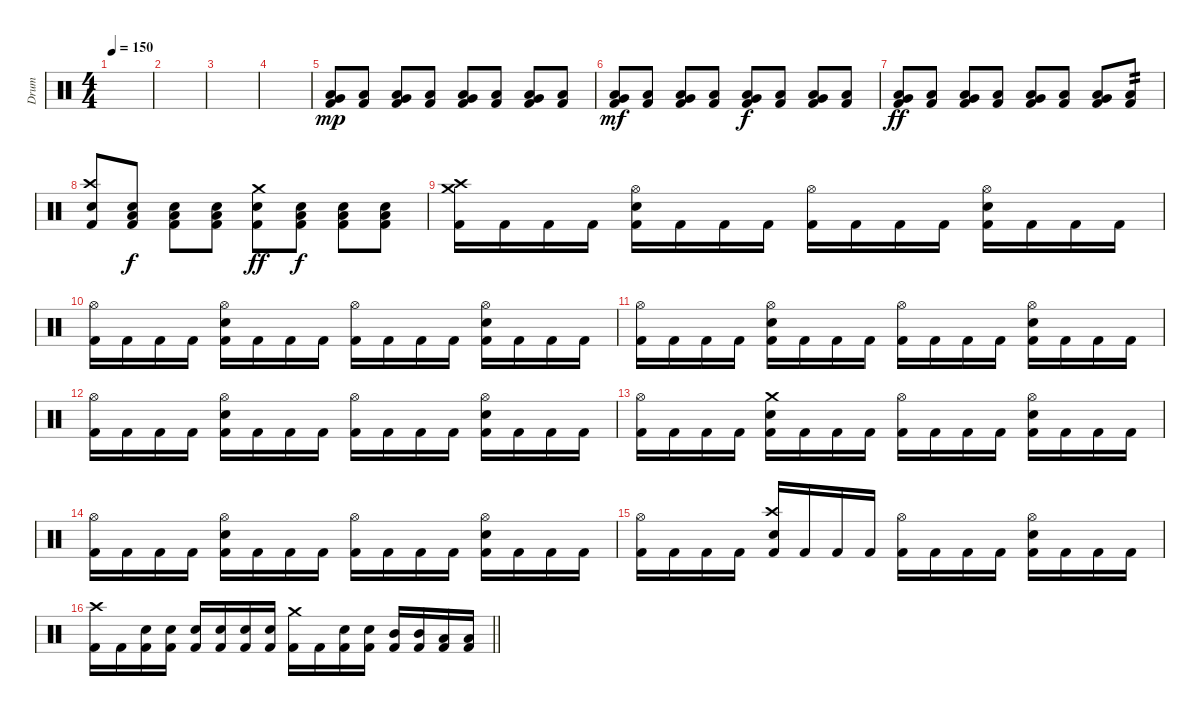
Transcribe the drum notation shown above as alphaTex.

\track ("Drum" "Drum") {instrument percussion}
\staff {score}
\articulation defaults
\ts (4 4)
\tempo 150
\clef neutral
\ks c
|
|
|
|
("Low Floor Tom (hit)" "Very Low Tom (hit)" "Kick (hit) 2").8{dy mp} ("Low Floor Tom (hit)" "Kick (hit) 2").8 ("Low Floor Tom (hit)" "Very Low Tom (hit)" "Kick (hit) 2").8 ("Low Floor Tom (hit)" "Kick (hit) 2").8 ("Low Floor Tom (hit)" "Very Low Tom (hit)" "Kick (hit) 2").8 ("Low Floor Tom (hit)" "Kick (hit) 2").8 ("Low Floor Tom (hit)" "Very Low Tom (hit)" "Kick (hit) 2").8 ("Low Floor Tom (hit)" "Kick (hit) 2").8 |
("Low Floor Tom (hit)" "Very Low Tom (hit)" "Kick (hit) 2").8{dy mf} ("Low Floor Tom (hit)" "Kick (hit) 2").8 ("Low Floor Tom (hit)" "Very Low Tom (hit)" "Kick (hit) 2").8 ("Low Floor Tom (hit)" "Kick (hit) 2").8 ("Low Floor Tom (hit)" "Very Low Tom (hit)" "Kick (hit) 2").8{dy f} ("Low Floor Tom (hit)" "Kick (hit) 2").8 ("Low Floor Tom (hit)" "Very Low Tom (hit)" "Kick (hit) 2").8 ("Low Floor Tom (hit)" "Kick (hit) 2").8 |
("Low Floor Tom (hit)" "Very Low Tom (hit)" "Kick (hit) 2").8{dy ff} ("Low Floor Tom (hit)" "Kick (hit) 2").8 ("Low Floor Tom (hit)" "Very Low Tom (hit)" "Kick (hit) 2").8 ("Low Floor Tom (hit)" "Kick (hit) 2").8 ("Low Floor Tom (hit)" "Very Low Tom (hit)" "Kick (hit) 2").8 ("Low Floor Tom (hit)" "Kick (hit) 2").8 ("Low Floor Tom (hit)" "Very Low Tom (hit)" "Kick (hit) 2").8 ("Low Floor Tom (hit)" "Kick (hit) 2").8{tp 2} |
("Crash high (hit)" "Snare (hit) 2" "Kick (hit) 2").8 ("Snare (hit) 2" "Low Floor Tom (hit)" "Kick (hit) 2").8{dy f} ("Snare (hit) 2" "Low Floor Tom (hit)" "Kick (hit) 2").8 ("Snare (hit) 2" "Low Floor Tom (hit)" "Kick (hit) 2").8 ("Crash medium (hit)" "Snare (hit) 2" "Kick (hit) 2").8{dy ff} ("Snare (hit) 2" "Low Floor Tom (hit)" "Kick (hit) 2").8{dy f} ("Snare (hit) 2" "Low Floor Tom (hit)" "Kick (hit) 2").8 ("Snare (hit) 2" "Low Floor Tom (hit)" "Kick (hit) 2").8 |
("Crash high (hit)" "Crash medium (hit)" "Kick (hit) 2").16 "Kick (hit) 2".16 "Kick (hit) 2".16 "Kick (hit) 2".16 ("Snare (hit) 2" "Hi-Hat (open)" "Kick (hit) 2").16 "Kick (hit) 2".16 "Kick (hit) 2".16 "Kick (hit) 2".16 ("Hi-Hat (open)" "Kick (hit) 2").16 "Kick (hit) 2".16 "Kick (hit) 2".16 "Kick (hit) 2".16 ("Snare (hit) 2" "Hi-Hat (open)" "Kick (hit) 2").16 "Kick (hit) 2".16 "Kick (hit) 2".16 "Kick (hit) 2".16 |
("Hi-Hat (open)" "Kick (hit) 2").16 "Kick (hit) 2".16 "Kick (hit) 2".16 "Kick (hit) 2".16 ("Snare (hit) 2" "Hi-Hat (open)" "Kick (hit) 2").16 "Kick (hit) 2".16 "Kick (hit) 2".16 "Kick (hit) 2".16 ("Hi-Hat (open)" "Kick (hit) 2").16 "Kick (hit) 2".16 "Kick (hit) 2".16 "Kick (hit) 2".16 ("Snare (hit) 2" "Hi-Hat (open)" "Kick (hit) 2").16 "Kick (hit) 2".16 "Kick (hit) 2".16 "Kick (hit) 2".16 |
("Hi-Hat (open)" "Kick (hit) 2").16 "Kick (hit) 2".16 "Kick (hit) 2".16 "Kick (hit) 2".16 ("Snare (hit) 2" "Hi-Hat (open)" "Kick (hit) 2").16 "Kick (hit) 2".16 "Kick (hit) 2".16 "Kick (hit) 2".16 ("Hi-Hat (open)" "Kick (hit) 2").16 "Kick (hit) 2".16 "Kick (hit) 2".16 "Kick (hit) 2".16 ("Snare (hit) 2" "Hi-Hat (open)" "Kick (hit) 2").16 "Kick (hit) 2".16 "Kick (hit) 2".16 "Kick (hit) 2".16 |
("Hi-Hat (open)" "Kick (hit) 2").16 "Kick (hit) 2".16 "Kick (hit) 2".16 "Kick (hit) 2".16 ("Snare (hit) 2" "Hi-Hat (open)" "Kick (hit) 2").16 "Kick (hit) 2".16 "Kick (hit) 2".16 "Kick (hit) 2".16 ("Hi-Hat (open)" "Kick (hit) 2").16 "Kick (hit) 2".16 "Kick (hit) 2".16 "Kick (hit) 2".16 ("Snare (hit) 2" "Hi-Hat (open)" "Kick (hit) 2").16 "Kick (hit) 2".16 "Kick (hit) 2".16 "Kick (hit) 2".16 |
("Hi-Hat (open)" "Kick (hit) 2").16 "Kick (hit) 2".16 "Kick (hit) 2".16 "Kick (hit) 2".16 ("Snare (hit) 2" "Crash medium (hit)" "Kick (hit) 2").16 "Kick (hit) 2".16 "Kick (hit) 2".16 "Kick (hit) 2".16 ("Hi-Hat (open)" "Kick (hit) 2").16 "Kick (hit) 2".16 "Kick (hit) 2".16 "Kick (hit) 2".16 ("Snare (hit) 2" "Hi-Hat (open)" "Kick (hit) 2").16 "Kick (hit) 2".16 "Kick (hit) 2".16 "Kick (hit) 2".16 |
("Hi-Hat (open)" "Kick (hit) 2").16 "Kick (hit) 2".16 "Kick (hit) 2".16 "Kick (hit) 2".16 ("Snare (hit) 2" "Hi-Hat (open)" "Kick (hit) 2").16 "Kick (hit) 2".16 "Kick (hit) 2".16 "Kick (hit) 2".16 ("Hi-Hat (open)" "Kick (hit) 2").16 "Kick (hit) 2".16 "Kick (hit) 2".16 "Kick (hit) 2".16 ("Snare (hit) 2" "Hi-Hat (open)" "Kick (hit) 2").16 "Kick (hit) 2".16 "Kick (hit) 2".16 "Kick (hit) 2".16 |
("Hi-Hat (open)" "Kick (hit) 2").16 "Kick (hit) 2".16 "Kick (hit) 2".16 "Kick (hit) 2".16 ("Snare (hit) 2" "Crash high (hit)" "Kick (hit) 2").16 "Kick (hit) 2".16 "Kick (hit) 2".16 "Kick (hit) 2".16 ("Hi-Hat (open)" "Kick (hit) 2").16 "Kick (hit) 2".16 "Kick (hit) 2".16 "Kick (hit) 2".16 ("Snare (hit) 2" "Hi-Hat (open)" "Kick (hit) 2").16 "Kick (hit) 2".16 "Kick (hit) 2".16 "Kick (hit) 2".16 |
\barLineRight lightlight
("Crash high (hit)" "Kick (hit) 2").16 "Kick (hit) 2".16 ("Snare (hit) 2" "Kick (hit) 2").16 ("Snare (hit) 2" "Kick (hit) 2").16 ("Snare (hit) 2" "Kick (hit) 2").16 ("Snare (hit) 2" "Kick (hit) 2").16 ("Snare (hit) 2" "Kick (hit) 2").16 ("Snare (hit) 2" "Kick (hit) 2").16 ("Crash medium (hit)" "Kick (hit) 2").16 "Kick (hit) 2".16 ("Snare (hit) 2" "Kick (hit) 2").16 ("Snare (hit) 2" "Kick (hit) 2").16 ("Mid Tom (hit)" "Kick (hit) 2").16 ("Mid Tom (hit)" "Kick (hit) 2").16 ("Low Tom (hit)" "Kick (hit) 2").16 ("Low Tom (hit)" "Kick (hit) 2").16
